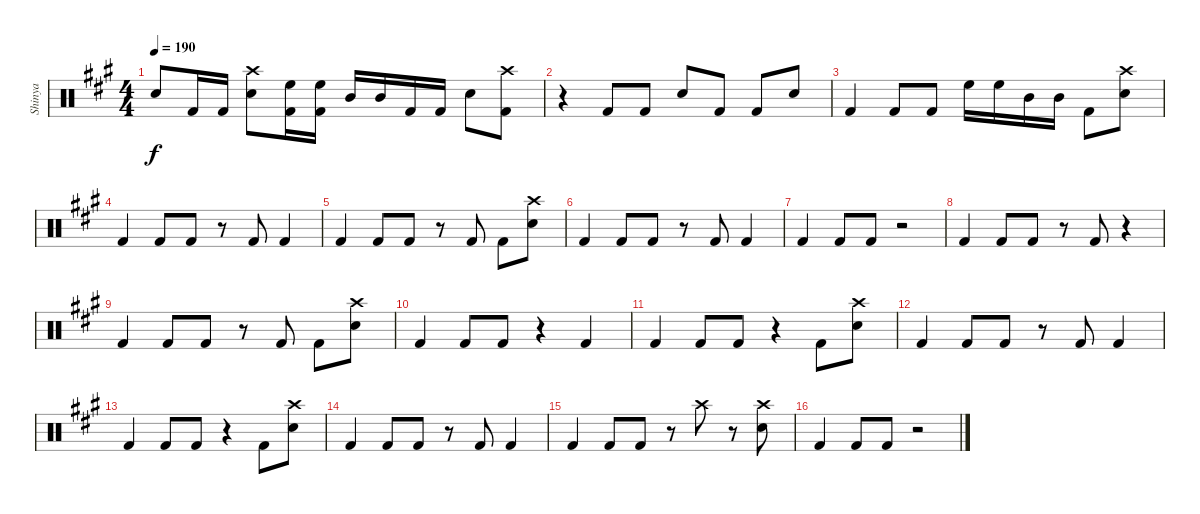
\track ("Shinya" "Shinya") {instrument percussion}
\staff {score}
\articulation defaults
\ts (4 4)
\tempo 190
\clef neutral
\ks a "Snare (hit)"{t}.8{dy f} "Kick (hit) 2".16 "Kick (hit) 2".16
("Crash high (hit)" "Snare (hit) 2").8 ("High Floor Tom (hit)" "Kick (hit) 2").16 ("High Floor Tom (hit)" "Kick (hit) 2").16 "Mid Tom (hit)".16 "Mid Tom (hit)".16 "Kick (hit) 2".16 "Kick (hit) 2".16 "Snare (hit) 2".8 ("Crash high (hit)" "Kick (hit) 2").8 |
r.4 "Kick (hit) 2".8 "Kick (hit) 2".8 "Snare (hit) 2".8 "Kick (hit) 2".8 "Kick (hit) 2".8 "Snare (hit) 2".8 |
"Kick (hit) 2".4 "Kick (hit) 2".8 "Kick (hit) 2".8 "High Floor Tom (hit)".16 "High Floor Tom (hit)".16 "Mid Tom (hit)".16 "Mid Tom (hit)".16 "Kick (hit) 2".8 ("Crash high (hit)" "Snare (hit) 2").8 |
"Kick (hit) 2".4 "Kick (hit) 2".8 "Kick (hit) 2".8 r.8 "Kick (hit) 2".8 "Kick (hit) 2".4 |
"Kick (hit) 2".4 "Kick (hit) 2".8 "Kick (hit) 2".8 r.8 "Kick (hit) 2".8 "Kick (hit) 2".8 ("Snare (hit) 2" "Crash high (hit)").8 |
"Kick (hit) 2".4 "Kick (hit) 2".8 "Kick (hit) 2".8 r.8 "Kick (hit) 2".8 "Kick (hit) 2".4 |
"Kick (hit) 2".4 "Kick (hit) 2".8 "Kick (hit) 2".8 r.2 |
"Kick (hit) 2".4 "Kick (hit) 2".8 "Kick (hit) 2".8 r.8 "Kick (hit) 2".8 r.4 |
"Kick (hit) 2".4 "Kick (hit) 2".8 "Kick (hit) 2".8 r.8 "Kick (hit) 2".8 "Kick (hit) 2".8 ("Crash high (hit)" "Snare (hit) 2").8 |
"Kick (hit) 2".4 "Kick (hit) 2".8 "Kick (hit) 2".8 r.4 "Kick (hit) 2".4 |
"Kick (hit) 2".4 "Kick (hit) 2".8 "Kick (hit) 2".8 r.4 "Kick (hit) 2".8 ("Snare (hit) 2" "Crash high (hit)").8 |
"Kick (hit) 2".4 "Kick (hit) 2".8 "Kick (hit) 2".8 r.8 "Kick (hit) 2".8 "Kick (hit) 2".4 |
"Kick (hit) 2".4 "Kick (hit) 2".8 "Kick (hit) 2".8 r.4 "Kick (hit) 2".8 ("Crash high (hit)" "Snare (hit) 2").8 |
"Kick (hit) 2".4 "Kick (hit) 2".8 "Kick (hit) 2".8 r.8 "Kick (hit) 2".8 "Kick (hit) 2".4 |
"Kick (hit) 2".4 "Kick (hit) 2".8 "Kick (hit) 2".8 r.8 "Crash high (hit)".8 r.8 ("Crash high (hit)" "Snare (hit) 2").8 |
"Kick (hit) 2".4 "Kick (hit) 2".8 "Kick (hit) 2".8 r.2
